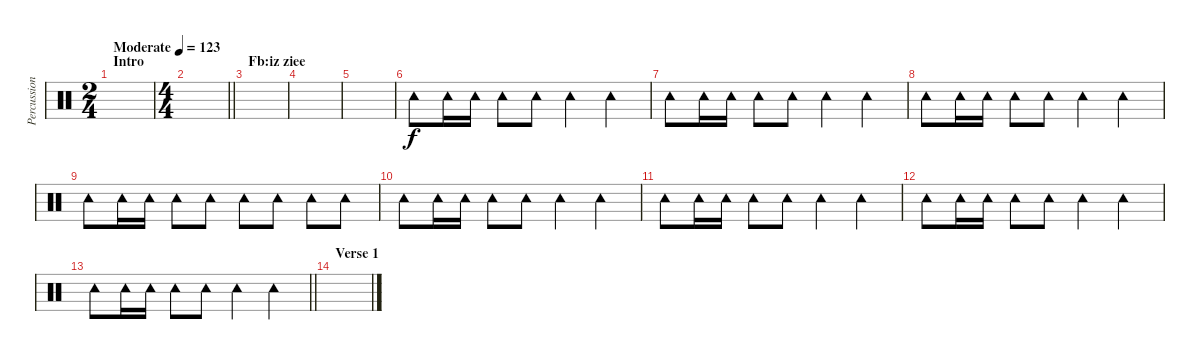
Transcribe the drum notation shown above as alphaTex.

\track ("Percussion 2" "Percussion") {instrument percussion}
\staff {score}
\articulation defaults
\ts (2 4)
\section ("" "Intro")
\tempo (123 "Moderate")
\clef neutral
\ks c
|
\ts (4 4)
\barLineRight lightlight
|
\section ("" "Fb:iz ziee")
|
|
|
"Tambourine (hit)".8 "Tambourine (hit)".16 "Tambourine (hit)".16 "Tambourine (hit)".8 "Tambourine (hit)".8 "Tambourine (hit)".4 "Tambourine (hit)".4 |
"Tambourine (hit)".8 "Tambourine (hit)".16 "Tambourine (hit)".16 "Tambourine (hit)".8 "Tambourine (hit)".8 "Tambourine (hit)".4 "Tambourine (hit)".4 |
"Tambourine (hit)".8 "Tambourine (hit)".16 "Tambourine (hit)".16 "Tambourine (hit)".8 "Tambourine (hit)".8 "Tambourine (hit)".4 "Tambourine (hit)".4 |
"Tambourine (hit)".8 "Tambourine (hit)".16 "Tambourine (hit)".16 "Tambourine (hit)".8 "Tambourine (hit)".8 "Tambourine (hit)".8 "Tambourine (hit)".8 "Tambourine (hit)".8 "Tambourine (hit)".8 |
"Tambourine (hit)".8 "Tambourine (hit)".16 "Tambourine (hit)".16 "Tambourine (hit)".8 "Tambourine (hit)".8 "Tambourine (hit)".4 "Tambourine (hit)".4 |
"Tambourine (hit)".8 "Tambourine (hit)".16 "Tambourine (hit)".16 "Tambourine (hit)".8 "Tambourine (hit)".8 "Tambourine (hit)".4 "Tambourine (hit)".4 |
"Tambourine (hit)".8 "Tambourine (hit)".16 "Tambourine (hit)".16 "Tambourine (hit)".8 "Tambourine (hit)".8 "Tambourine (hit)".4 "Tambourine (hit)".4 |
\barLineRight lightlight "Tambourine (hit)".8 "Tambourine (hit)".16 "Tambourine (hit)".16 "Tambourine (hit)".8 "Tambourine (hit)".8 "Tambourine (hit)".4 "Tambourine (hit)".4
|
\section ("" "Verse 1")
